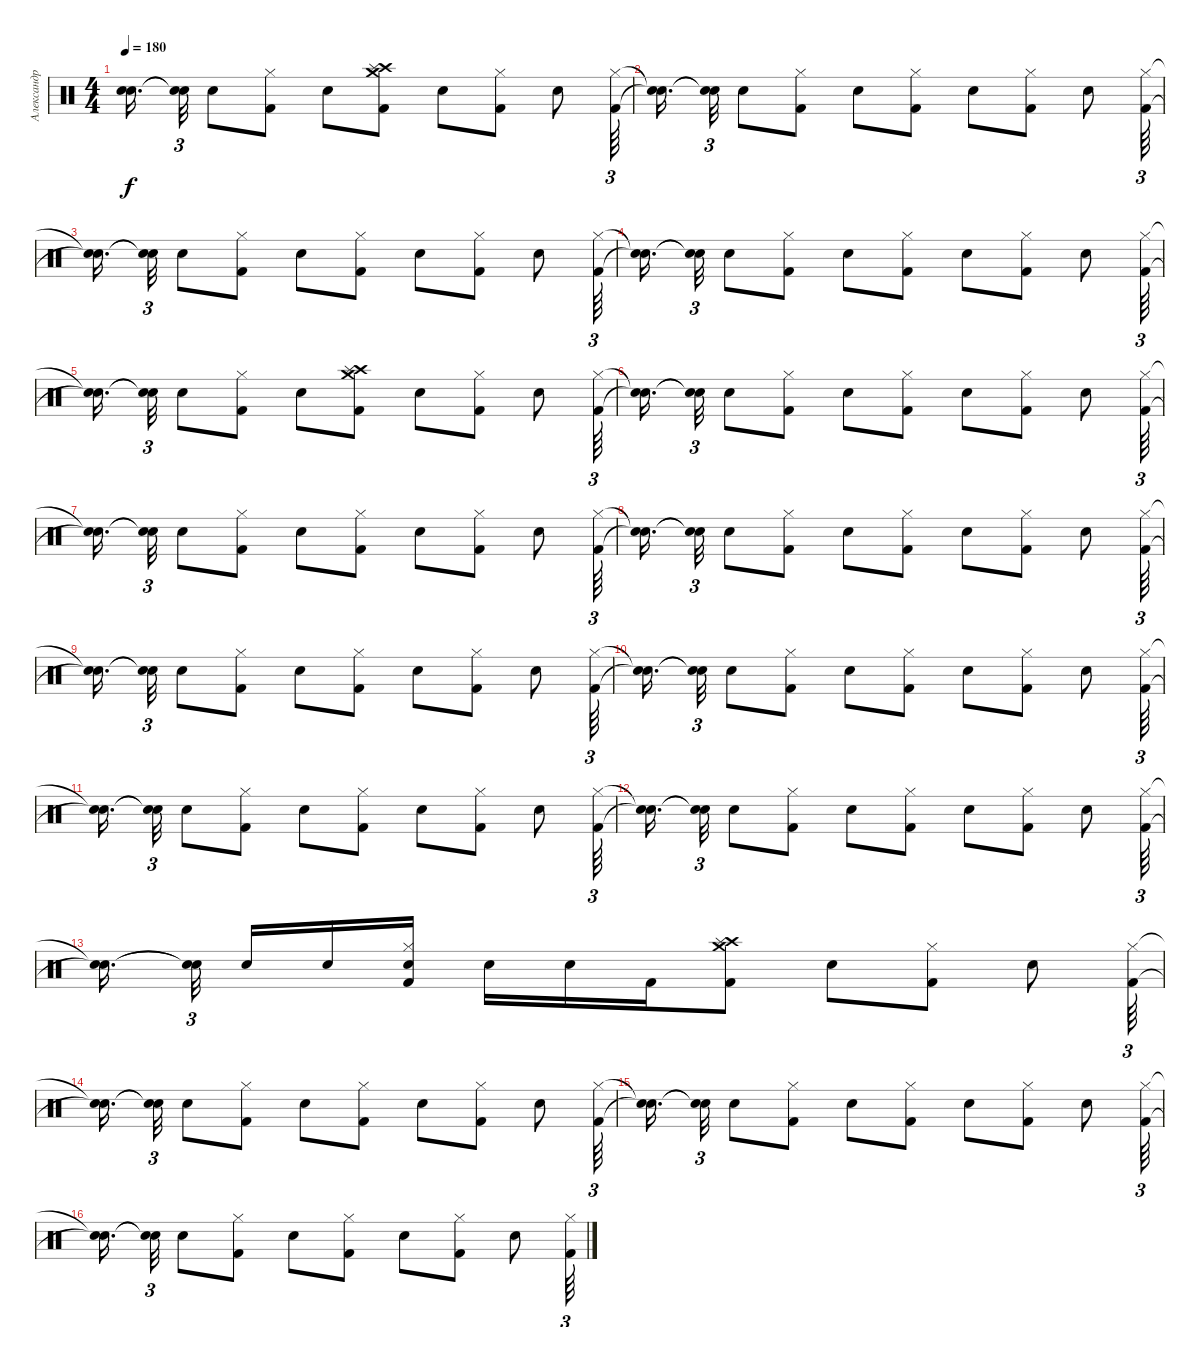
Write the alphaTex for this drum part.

\track ("Александр Карпухин" "Александр ") {instrument percussion}
\staff {score}
\articulation defaults
\ts (4 4)
\tempo 180
\clef neutral
\ks c
("Snare (hit)"{t} "Snare (hit)"{t}).16{d dy f beam splitsecondary} ("Snare (hit)"{t} "Snare (hit)"{t}).32{tu (3 2)} "Snare (hit) 2".8 ("Hi-Hat (closed)" "Kick (hit) 2").8 "Snare (hit) 2".8 ("Crash high (hit)" "Crash medium (hit)" "Splash (hit)" "Kick (hit) 2").8 "Snare (hit) 2".8 ("Hi-Hat (closed)" "Kick (hit) 2").8 "Snare (hit) 2".8 ("Hi-Hat (closed)" "Kick (hit) 2").64{tu (3 2)} |
("Snare (hit)"{t} "Snare (hit)"{t}).16{d beam splitsecondary} ("Snare (hit)"{t} "Snare (hit)"{t}).32{tu (3 2)} "Snare (hit) 2".8 ("Hi-Hat (closed)" "Kick (hit) 2").8 "Snare (hit) 2".8 ("Hi-Hat (closed)" "Kick (hit) 2").8 "Snare (hit) 2".8 ("Hi-Hat (closed)" "Kick (hit) 2").8 "Snare (hit) 2".8 ("Hi-Hat (closed)" "Kick (hit) 2").64{tu (3 2)} |
("Snare (hit)"{t} "Snare (hit)"{t}).16{d beam splitsecondary} ("Snare (hit)"{t} "Snare (hit)"{t}).32{tu (3 2)} "Snare (hit) 2".8 ("Hi-Hat (closed)" "Kick (hit) 2").8 "Snare (hit) 2".8 ("Hi-Hat (closed)" "Kick (hit) 2").8 "Snare (hit) 2".8 ("Hi-Hat (closed)" "Kick (hit) 2").8 "Snare (hit) 2".8 ("Hi-Hat (closed)" "Kick (hit) 2").64{tu (3 2)} |
("Snare (hit)"{t} "Snare (hit)"{t}).16{d beam splitsecondary} ("Snare (hit)"{t} "Snare (hit)"{t}).32{tu (3 2)} "Snare (hit) 2".8 ("Hi-Hat (closed)" "Kick (hit) 2").8 "Snare (hit) 2".8 ("Hi-Hat (closed)" "Kick (hit) 2").8 "Snare (hit) 2".8 ("Hi-Hat (closed)" "Kick (hit) 2").8 "Snare (hit) 2".8 ("Hi-Hat (closed)" "Kick (hit) 2").64{tu (3 2)} |
("Snare (hit)"{t} "Snare (hit)"{t}).16{d beam splitsecondary} ("Snare (hit)"{t} "Snare (hit)"{t}).32{tu (3 2)} "Snare (hit) 2".8 ("Hi-Hat (closed)" "Kick (hit) 2").8 "Snare (hit) 2".8 ("Crash high (hit)" "Crash medium (hit)" "Splash (hit)" "Kick (hit) 2").8 "Snare (hit) 2".8 ("Hi-Hat (closed)" "Kick (hit) 2").8 "Snare (hit) 2".8 ("Hi-Hat (closed)" "Kick (hit) 2").64{tu (3 2)} |
("Snare (hit)"{t} "Snare (hit)"{t}).16{d beam splitsecondary} ("Snare (hit)"{t} "Snare (hit)"{t}).32{tu (3 2)} "Snare (hit) 2".8 ("Hi-Hat (closed)" "Kick (hit) 2").8 "Snare (hit) 2".8 ("Hi-Hat (closed)" "Kick (hit) 2").8 "Snare (hit) 2".8 ("Hi-Hat (closed)" "Kick (hit) 2").8 "Snare (hit) 2".8 ("Hi-Hat (closed)" "Kick (hit) 2").64{tu (3 2)} |
("Snare (hit)"{t} "Snare (hit)"{t}).16{d beam splitsecondary} ("Snare (hit)"{t} "Snare (hit)"{t}).32{tu (3 2)} "Snare (hit) 2".8 ("Hi-Hat (closed)" "Kick (hit) 2").8 "Snare (hit) 2".8 ("Hi-Hat (closed)" "Kick (hit) 2").8 "Snare (hit) 2".8 ("Hi-Hat (closed)" "Kick (hit) 2").8 "Snare (hit) 2".8 ("Hi-Hat (closed)" "Kick (hit) 2").64{tu (3 2)} |
("Snare (hit)"{t} "Snare (hit)"{t}).16{d beam splitsecondary} ("Snare (hit)"{t} "Snare (hit)"{t}).32{tu (3 2)} "Snare (hit) 2".8 ("Hi-Hat (closed)" "Kick (hit) 2").8 "Snare (hit) 2".8 ("Hi-Hat (closed)" "Kick (hit) 2").8 "Snare (hit) 2".8 ("Hi-Hat (closed)" "Kick (hit) 2").8 "Snare (hit) 2".8 ("Hi-Hat (closed)" "Kick (hit) 2").64{tu (3 2)} |
("Snare (hit)"{t} "Snare (hit)"{t}).16{d beam splitsecondary} ("Snare (hit)"{t} "Snare (hit)"{t}).32{tu (3 2)} "Snare (hit) 2".8 ("Hi-Hat (closed)" "Kick (hit) 2").8 "Snare (hit) 2".8 ("Hi-Hat (closed)" "Kick (hit) 2").8 "Snare (hit) 2".8 ("Hi-Hat (closed)" "Kick (hit) 2").8 "Snare (hit) 2".8 ("Hi-Hat (closed)" "Kick (hit) 2").64{tu (3 2)} |
("Snare (hit)"{t} "Snare (hit)"{t}).16{d beam splitsecondary} ("Snare (hit)"{t} "Snare (hit)"{t}).32{tu (3 2)} "Snare (hit) 2".8 ("Hi-Hat (closed)" "Kick (hit) 2").8 "Snare (hit) 2".8 ("Hi-Hat (closed)" "Kick (hit) 2").8 "Snare (hit) 2".8 ("Hi-Hat (closed)" "Kick (hit) 2").8 "Snare (hit) 2".8 ("Hi-Hat (closed)" "Kick (hit) 2").64{tu (3 2)} |
("Snare (hit)"{t} "Snare (hit)"{t}).16{d beam splitsecondary} ("Snare (hit)"{t} "Snare (hit)"{t}).32{tu (3 2)} "Snare (hit) 2".8 ("Hi-Hat (closed)" "Kick (hit) 2").8 "Snare (hit) 2".8 ("Hi-Hat (closed)" "Kick (hit) 2").8 "Snare (hit) 2".8 ("Hi-Hat (closed)" "Kick (hit) 2").8 "Snare (hit) 2".8 ("Hi-Hat (closed)" "Kick (hit) 2").64{tu (3 2)} |
("Snare (hit)"{t} "Snare (hit)"{t}).16{d beam splitsecondary} ("Snare (hit)"{t} "Snare (hit)"{t}).32{tu (3 2)} "Snare (hit) 2".8 ("Hi-Hat (closed)" "Kick (hit) 2").8 "Snare (hit) 2".8 ("Hi-Hat (closed)" "Kick (hit) 2").8 "Snare (hit) 2".8 ("Hi-Hat (closed)" "Kick (hit) 2").8 "Snare (hit) 2".8 ("Hi-Hat (closed)" "Kick (hit) 2").64{tu (3 2)} |
("Snare (hit)"{t} "Snare (hit)"{t}).16{d beam splitsecondary} ("Snare (hit)"{t} "Snare (hit)"{t}).32{tu (3 2) beam splitsecondary} "Snare (hit) 2".16 "Snare (hit) 2".16 ("Hi-Hat (closed)" "Snare (hit) 2" "Kick (hit) 2").16 "Snare (hit) 2".16 "Snare (hit) 2".16 "Kick (hit) 2".16 ("Crash high (hit)" "Crash medium (hit)" "Splash (hit)" "Kick (hit) 2").8 "Snare (hit) 2".8 ("Hi-Hat (closed)" "Kick (hit) 2").8 "Snare (hit) 2".8 ("Hi-Hat (closed)" "Kick (hit) 2").64{tu (3 2)} |
("Snare (hit)"{t} "Snare (hit)"{t}).16{d beam splitsecondary} ("Snare (hit)"{t} "Snare (hit)"{t}).32{tu (3 2)} "Snare (hit) 2".8 ("Hi-Hat (closed)" "Kick (hit) 2").8 "Snare (hit) 2".8 ("Hi-Hat (closed)" "Kick (hit) 2").8 "Snare (hit) 2".8 ("Hi-Hat (closed)" "Kick (hit) 2").8 "Snare (hit) 2".8 ("Hi-Hat (closed)" "Kick (hit) 2").64{tu (3 2)} |
("Snare (hit)"{t} "Snare (hit)"{t}).16{d beam splitsecondary} ("Snare (hit)"{t} "Snare (hit)"{t}).32{tu (3 2)} "Snare (hit) 2".8 ("Hi-Hat (closed)" "Kick (hit) 2").8 "Snare (hit) 2".8 ("Hi-Hat (closed)" "Kick (hit) 2").8 "Snare (hit) 2".8 ("Hi-Hat (closed)" "Kick (hit) 2").8 "Snare (hit) 2".8 ("Hi-Hat (closed)" "Kick (hit) 2").64{tu (3 2)} |
("Snare (hit)"{t} "Snare (hit)"{t}).16{d beam splitsecondary} ("Snare (hit)"{t} "Snare (hit)"{t}).32{tu (3 2)} "Snare (hit) 2".8 ("Hi-Hat (closed)" "Kick (hit) 2").8 "Snare (hit) 2".8 ("Hi-Hat (closed)" "Kick (hit) 2").8 "Snare (hit) 2".8 ("Hi-Hat (closed)" "Kick (hit) 2").8 "Snare (hit) 2".8 ("Hi-Hat (closed)" "Kick (hit) 2").64{tu (3 2)}
